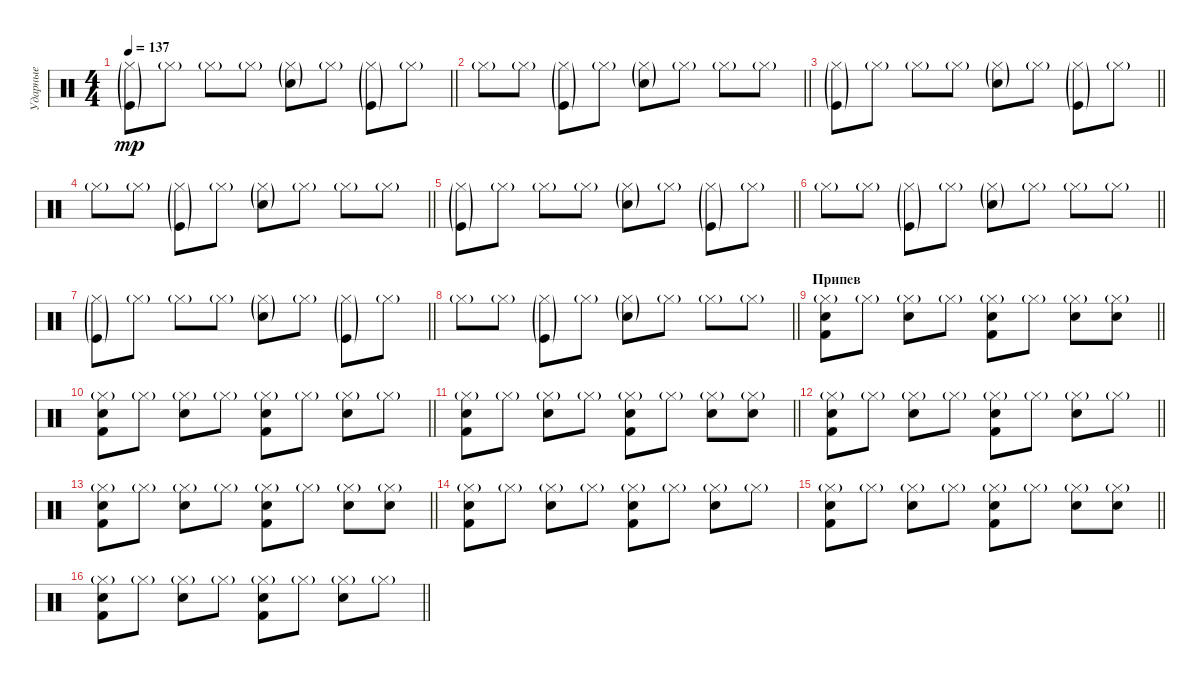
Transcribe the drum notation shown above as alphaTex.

\track ("Ударные" "Ударные") {instrument percussion}
\staff {score}
\articulation defaults
\ts (4 4)
\tempo 137
\clef neutral
\barLineRight lightlight
\ks c
("Hi-Hat (closed)"{g} "Kick (hit)"{g}).8{dy mp} "Hi-Hat (closed)"{g}.8 "Hi-Hat (closed)"{g}.8 "Hi-Hat (closed)"{g}.8 ("Hi-Hat (closed)"{g} "Electric Snare (hit)"{g}).8 "Hi-Hat (closed)"{g}.8 ("Hi-Hat (closed)"{g} "Kick (hit)"{g}).8 "Hi-Hat (closed)"{g}.8 |
\barLineRight lightlight "Hi-Hat (closed)"{g}.8 "Hi-Hat (closed)"{g}.8
("Hi-Hat (closed)"{g} "Kick (hit)"{g}).8 "Hi-Hat (closed)"{g}.8 ("Hi-Hat (closed)"{g} "Electric Snare (hit)"{g}).8 "Hi-Hat (closed)"{g}.8 "Hi-Hat (closed)"{g}.8 "Hi-Hat (closed)"{g}.8 |
\barLineRight lightlight
("Hi-Hat (closed)"{g} "Kick (hit)"{g}).8 "Hi-Hat (closed)"{g}.8 "Hi-Hat (closed)"{g}.8 "Hi-Hat (closed)"{g}.8 ("Hi-Hat (closed)"{g} "Electric Snare (hit)"{g}).8 "Hi-Hat (closed)"{g}.8 ("Hi-Hat (closed)"{g} "Kick (hit)"{g}).8 "Hi-Hat (closed)"{g}.8 |
\barLineRight lightlight "Hi-Hat (closed)"{g}.8 "Hi-Hat (closed)"{g}.8
("Hi-Hat (closed)"{g} "Kick (hit)"{g}).8 "Hi-Hat (closed)"{g}.8 ("Hi-Hat (closed)"{g} "Electric Snare (hit)"{g}).8 "Hi-Hat (closed)"{g}.8 "Hi-Hat (closed)"{g}.8 "Hi-Hat (closed)"{g}.8 |
\barLineRight lightlight
("Hi-Hat (closed)"{g} "Kick (hit)"{g}).8 "Hi-Hat (closed)"{g}.8 "Hi-Hat (closed)"{g}.8 "Hi-Hat (closed)"{g}.8 ("Hi-Hat (closed)"{g} "Electric Snare (hit)"{g}).8 "Hi-Hat (closed)"{g}.8 ("Hi-Hat (closed)"{g} "Kick (hit)"{g}).8 "Hi-Hat (closed)"{g}.8 |
\barLineRight lightlight "Hi-Hat (closed)"{g}.8 "Hi-Hat (closed)"{g}.8
("Hi-Hat (closed)"{g} "Kick (hit)"{g}).8 "Hi-Hat (closed)"{g}.8 ("Hi-Hat (closed)"{g} "Electric Snare (hit)"{g}).8 "Hi-Hat (closed)"{g}.8 "Hi-Hat (closed)"{g}.8 "Hi-Hat (closed)"{g}.8 |
\barLineRight lightlight
("Hi-Hat (closed)"{g} "Kick (hit)"{g}).8 "Hi-Hat (closed)"{g}.8 "Hi-Hat (closed)"{g}.8 "Hi-Hat (closed)"{g}.8 ("Hi-Hat (closed)"{g} "Electric Snare (hit)"{g}).8 "Hi-Hat (closed)"{g}.8 ("Hi-Hat (closed)"{g} "Kick (hit)"{g}).8 "Hi-Hat (closed)"{g}.8 |
\barLineRight lightlight "Hi-Hat (closed)"{g}.8 "Hi-Hat (closed)"{g}.8
("Hi-Hat (closed)"{g} "Kick (hit)"{g}).8 "Hi-Hat (closed)"{g}.8 ("Hi-Hat (closed)"{g} "Electric Snare (hit)"{g}).8 "Hi-Hat (closed)"{g}.8 "Hi-Hat (closed)"{g}.8 "Hi-Hat (closed)"{g}.8 |
\section ("" "Припев")
\barLineRight lightlight
("Kick (hit) 2" "Electric Snare (hit)" "Hi-Hat (closed)"{g}).8 "Hi-Hat (closed)"{g}.8 ("Snare (hit) 2" "Hi-Hat (closed)"{g}).8 "Hi-Hat (closed)"{g}.8 ("Kick (hit) 2" "Electric Snare (hit)" "Hi-Hat (closed)"{g}).8 "Hi-Hat (closed)"{g}.8 ("Snare (hit) 2" "Hi-Hat (closed)"{g}).8 ("Snare (hit) 2" "Hi-Hat (closed)"{g}).8 |
\barLineRight lightlight
("Kick (hit) 2" "Electric Snare (hit)" "Hi-Hat (closed)"{g}).8 "Hi-Hat (closed)"{g}.8 ("Snare (hit) 2" "Hi-Hat (closed)"{g}).8 "Hi-Hat (closed)"{g}.8 ("Kick (hit) 2" "Electric Snare (hit)" "Hi-Hat (closed)"{g}).8 "Hi-Hat (closed)"{g}.8 ("Snare (hit) 2" "Hi-Hat (closed)"{g}).8 "Hi-Hat (closed)"{g}.8 |
\barLineRight lightlight
("Kick (hit) 2" "Electric Snare (hit)" "Hi-Hat (closed)"{g}).8 "Hi-Hat (closed)"{g}.8 ("Snare (hit) 2" "Hi-Hat (closed)"{g}).8 "Hi-Hat (closed)"{g}.8 ("Kick (hit) 2" "Electric Snare (hit)" "Hi-Hat (closed)"{g}).8 "Hi-Hat (closed)"{g}.8 ("Snare (hit) 2" "Hi-Hat (closed)"{g}).8 ("Snare (hit) 2" "Hi-Hat (closed)"{g}).8 |
\barLineRight lightlight
("Kick (hit) 2" "Electric Snare (hit)" "Hi-Hat (closed)"{g}).8 "Hi-Hat (closed)"{g}.8 ("Snare (hit) 2" "Hi-Hat (closed)"{g}).8 "Hi-Hat (closed)"{g}.8 ("Kick (hit) 2" "Electric Snare (hit)" "Hi-Hat (closed)"{g}).8 "Hi-Hat (closed)"{g}.8 ("Snare (hit) 2" "Hi-Hat (closed)"{g}).8 "Hi-Hat (closed)"{g}.8 |
\barLineRight lightlight
("Kick (hit) 2" "Electric Snare (hit)" "Hi-Hat (closed)"{g}).8 "Hi-Hat (closed)"{g}.8 ("Snare (hit) 2" "Hi-Hat (closed)"{g}).8 "Hi-Hat (closed)"{g}.8 ("Kick (hit) 2" "Electric Snare (hit)" "Hi-Hat (closed)"{g}).8 "Hi-Hat (closed)"{g}.8 ("Snare (hit) 2" "Hi-Hat (closed)"{g}).8 ("Snare (hit) 2" "Hi-Hat (closed)"{g}).8 |
("Kick (hit) 2" "Electric Snare (hit)" "Hi-Hat (closed)"{g}).8 "Hi-Hat (closed)"{g}.8 ("Snare (hit) 2" "Hi-Hat (closed)"{g}).8 "Hi-Hat (closed)"{g}.8 ("Kick (hit) 2" "Electric Snare (hit)" "Hi-Hat (closed)"{g}).8 "Hi-Hat (closed)"{g}.8 ("Snare (hit) 2" "Hi-Hat (closed)"{g}).8 "Hi-Hat (closed)"{g}.8 |
\barLineRight lightlight
("Kick (hit) 2" "Electric Snare (hit)" "Hi-Hat (closed)"{g}).8 "Hi-Hat (closed)"{g}.8 ("Snare (hit) 2" "Hi-Hat (closed)"{g}).8 "Hi-Hat (closed)"{g}.8 ("Kick (hit) 2" "Electric Snare (hit)" "Hi-Hat (closed)"{g}).8 "Hi-Hat (closed)"{g}.8 ("Snare (hit) 2" "Hi-Hat (closed)"{g}).8 ("Snare (hit) 2" "Hi-Hat (closed)"{g}).8 |
\barLineRight lightlight
("Kick (hit) 2" "Electric Snare (hit)" "Hi-Hat (closed)"{g}).8 "Hi-Hat (closed)"{g}.8 ("Snare (hit) 2" "Hi-Hat (closed)"{g}).8 "Hi-Hat (closed)"{g}.8 ("Kick (hit) 2" "Electric Snare (hit)" "Hi-Hat (closed)"{g}).8 "Hi-Hat (closed)"{g}.8 ("Snare (hit) 2" "Hi-Hat (closed)"{g}).8 "Hi-Hat (closed)"{g}.8
